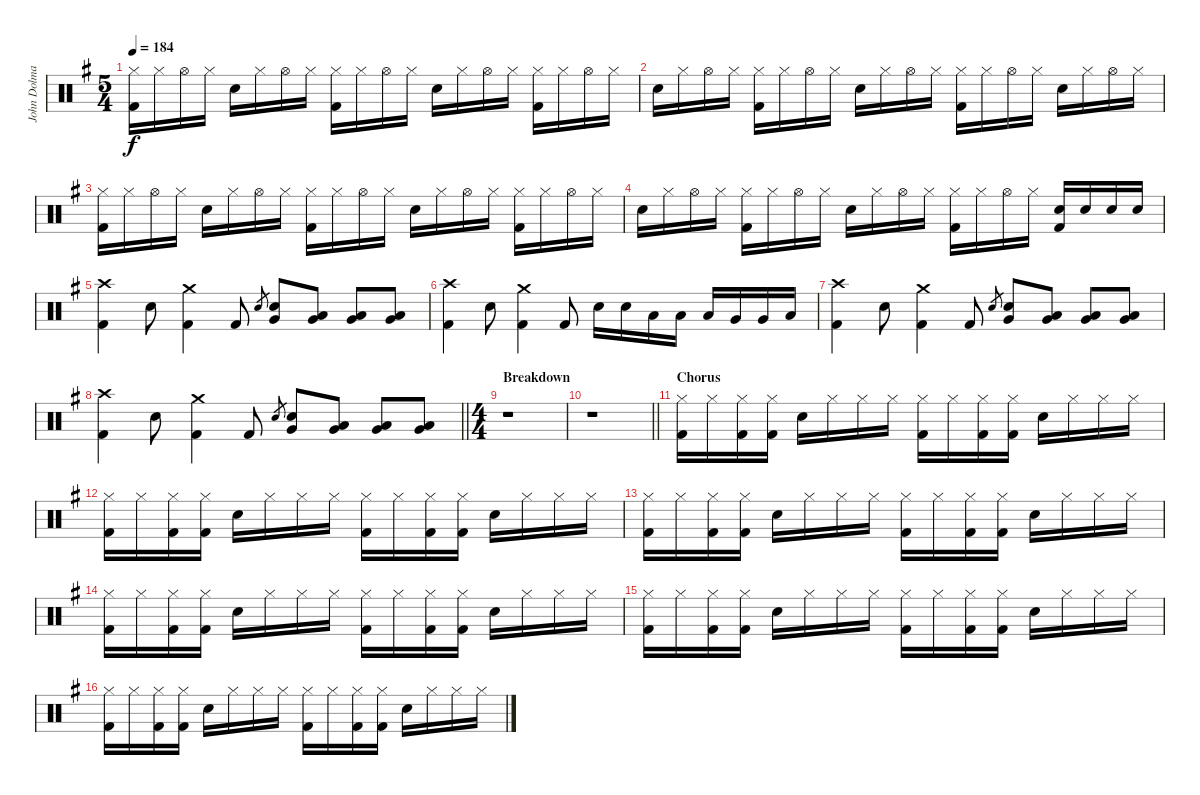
\track ("John Dolmayan [Drums]" "John Dolma") {instrument percussion}
\staff {score}
\articulation defaults
\ts (5 4)
\tempo 184
\clef neutral
\ks eminor
("Hi-Hat (closed)" "Kick (hit) 2").16{dy f} "Hi-Hat (closed)".16 "Hi-Hat (open)".16 "Hi-Hat (closed)".16 "Electric Snare (hit)".16 "Hi-Hat (closed)".16 "Hi-Hat (open)".16 "Hi-Hat (closed)".16 ("Hi-Hat (closed)" "Kick (hit) 2").16 "Hi-Hat (closed)".16 "Hi-Hat (open)".16 "Hi-Hat (closed)".16 "Electric Snare (hit)".16 "Hi-Hat (closed)".16 "Hi-Hat (open)".16 "Hi-Hat (closed)".16 ("Hi-Hat (closed)" "Kick (hit) 2").16 "Hi-Hat (closed)".16 "Hi-Hat (open)".16 "Hi-Hat (closed)".16 |
"Electric Snare (hit)".16 "Hi-Hat (closed)".16 "Hi-Hat (open)".16 "Hi-Hat (closed)".16 ("Hi-Hat (closed)" "Kick (hit) 2").16 "Hi-Hat (closed)".16 "Hi-Hat (open)".16 "Hi-Hat (closed)".16 "Electric Snare (hit)".16 "Hi-Hat (closed)".16 "Hi-Hat (open)".16 "Hi-Hat (closed)".16 ("Hi-Hat (closed)" "Kick (hit) 2").16 "Hi-Hat (closed)".16 "Hi-Hat (open)".16 "Hi-Hat (closed)".16 "Electric Snare (hit)".16 "Hi-Hat (closed)".16 "Hi-Hat (open)".16 "Hi-Hat (closed)".16 |
("Hi-Hat (closed)" "Kick (hit) 2").16 "Hi-Hat (closed)".16 "Hi-Hat (open)".16 "Hi-Hat (closed)".16 "Electric Snare (hit)".16 "Hi-Hat (closed)".16 "Hi-Hat (open)".16 "Hi-Hat (closed)".16 ("Hi-Hat (closed)" "Kick (hit) 2").16 "Hi-Hat (closed)".16 "Hi-Hat (open)".16 "Hi-Hat (closed)".16 "Electric Snare (hit)".16 "Hi-Hat (closed)".16 "Hi-Hat (open)".16 "Hi-Hat (closed)".16 ("Hi-Hat (closed)" "Kick (hit) 2").16 "Hi-Hat (closed)".16 "Hi-Hat (open)".16 "Hi-Hat (closed)".16 |
"Electric Snare (hit)".16 "Hi-Hat (closed)".16 "Hi-Hat (open)".16 "Hi-Hat (closed)".16 ("Hi-Hat (closed)" "Kick (hit) 2").16 "Hi-Hat (closed)".16 "Hi-Hat (open)".16 "Hi-Hat (closed)".16 "Electric Snare (hit)".16 "Hi-Hat (closed)".16 "Hi-Hat (open)".16 "Hi-Hat (closed)".16 ("Hi-Hat (closed)" "Kick (hit) 2").16 "Hi-Hat (closed)".16 "Hi-Hat (open)".16 "Hi-Hat (closed)".16 ("Electric Snare (hit)" "Kick (hit) 2").16 "Electric Snare (hit)".16 "Electric Snare (hit)".16 "Electric Snare (hit)".16 |
("Crash high (hit)" "Kick (hit) 2").4 "Electric Snare (hit)".8 ("Crash medium (hit)" "Kick (hit) 2").4 "Kick (hit) 2".8 "Electric Snare (hit)".8{gr} ("Very Low Tom (hit)" "Electric Snare (hit)").8 ("Low Tom (hit)" "Very Low Tom (hit)").8 ("Very Low Tom (hit)" "Low Floor Tom (hit)").8 ("Very Low Tom (hit)" "Low Floor Tom (hit)").8 |
("Crash high (hit)" "Kick (hit) 2").4 "Electric Snare (hit)".8 ("Crash medium (hit)" "Kick (hit) 2").4 "Kick (hit) 2".8 "Electric Snare (hit)".16 "Electric Snare (hit)".16 "Low Tom (hit)".16 "Low Tom (hit)".16 "Low Tom (hit)".16 "Very Low Tom (hit)".16 "Very Low Tom (hit)".16 "Low Floor Tom (hit)".16 |
("Crash high (hit)" "Kick (hit) 2").4 "Electric Snare (hit)".8 ("Crash medium (hit)" "Kick (hit) 2").4 "Kick (hit) 2".8 "Electric Snare (hit)".8{gr} ("Very Low Tom (hit)" "Electric Snare (hit)").8 ("Low Tom (hit)" "Very Low Tom (hit)").8 ("Very Low Tom (hit)" "Low Floor Tom (hit)").8 ("Very Low Tom (hit)" "Low Floor Tom (hit)").8 |
\barLineRight lightlight
("Crash high (hit)" "Kick (hit) 2").4 "Electric Snare (hit)".8 ("Crash medium (hit)" "Kick (hit) 2").4 "Kick (hit) 2".8 "Electric Snare (hit)".8{gr} ("Very Low Tom (hit)" "Electric Snare (hit)").8 ("Low Tom (hit)" "Very Low Tom (hit)").8 ("Very Low Tom (hit)" "Low Floor Tom (hit)").8 ("Very Low Tom (hit)" "Low Floor Tom (hit)").8 |
\ts (4 4)
\section ("" "Breakdown")
r.1 |
\barLineRight lightlight
r.1 |
\section ("" "Chorus")
("Hi-Hat (closed)" "Kick (hit) 2").16 "Hi-Hat (closed)".16 ("Hi-Hat (closed)" "Kick (hit) 2").16 ("Hi-Hat (closed)" "Kick (hit) 2").16 "Electric Snare (hit)".16 "Hi-Hat (closed)".16 "Hi-Hat (closed)".16 "Hi-Hat (closed)".16 ("Hi-Hat (closed)" "Kick (hit) 2").16 "Hi-Hat (closed)".16 ("Hi-Hat (closed)" "Kick (hit) 2").16 ("Hi-Hat (closed)" "Kick (hit) 2").16 "Electric Snare (hit)".16 "Hi-Hat (closed)".16 "Hi-Hat (closed)".16 "Hi-Hat (closed)".16 |
("Hi-Hat (closed)" "Kick (hit) 2").16 "Hi-Hat (closed)".16 ("Hi-Hat (closed)" "Kick (hit) 2").16 ("Hi-Hat (closed)" "Kick (hit) 2").16 "Electric Snare (hit)".16 "Hi-Hat (closed)".16 "Hi-Hat (closed)".16 "Hi-Hat (closed)".16 ("Hi-Hat (closed)" "Kick (hit) 2").16 "Hi-Hat (closed)".16 ("Hi-Hat (closed)" "Kick (hit) 2").16 ("Hi-Hat (closed)" "Kick (hit) 2").16 "Electric Snare (hit)".16 "Hi-Hat (closed)".16 "Hi-Hat (closed)".16 "Hi-Hat (closed)".16 |
("Hi-Hat (closed)" "Kick (hit) 2").16 "Hi-Hat (closed)".16 ("Hi-Hat (closed)" "Kick (hit) 2").16 ("Hi-Hat (closed)" "Kick (hit) 2").16 "Electric Snare (hit)".16 "Hi-Hat (closed)".16 "Hi-Hat (closed)".16 "Hi-Hat (closed)".16 ("Hi-Hat (closed)" "Kick (hit) 2").16 "Hi-Hat (closed)".16 ("Hi-Hat (closed)" "Kick (hit) 2").16 ("Hi-Hat (closed)" "Kick (hit) 2").16 "Electric Snare (hit)".16 "Hi-Hat (closed)".16 "Hi-Hat (closed)".16 "Hi-Hat (closed)".16 |
("Hi-Hat (closed)" "Kick (hit) 2").16 "Hi-Hat (closed)".16 ("Hi-Hat (closed)" "Kick (hit) 2").16 ("Hi-Hat (closed)" "Kick (hit) 2").16 "Electric Snare (hit)".16 "Hi-Hat (closed)".16 "Hi-Hat (closed)".16 "Hi-Hat (closed)".16 ("Hi-Hat (closed)" "Kick (hit) 2").16 "Hi-Hat (closed)".16 ("Hi-Hat (closed)" "Kick (hit) 2").16 ("Hi-Hat (closed)" "Kick (hit) 2").16 "Electric Snare (hit)".16 "Hi-Hat (closed)".16 "Hi-Hat (closed)".16 "Hi-Hat (closed)".16 |
("Hi-Hat (closed)" "Kick (hit) 2").16 "Hi-Hat (closed)".16 ("Hi-Hat (closed)" "Kick (hit) 2").16 ("Hi-Hat (closed)" "Kick (hit) 2").16 "Electric Snare (hit)".16 "Hi-Hat (closed)".16 "Hi-Hat (closed)".16 "Hi-Hat (closed)".16 ("Hi-Hat (closed)" "Kick (hit) 2").16 "Hi-Hat (closed)".16 ("Hi-Hat (closed)" "Kick (hit) 2").16 ("Hi-Hat (closed)" "Kick (hit) 2").16 "Electric Snare (hit)".16 "Hi-Hat (closed)".16 "Hi-Hat (closed)".16 "Hi-Hat (closed)".16 |
("Hi-Hat (closed)" "Kick (hit) 2").16 "Hi-Hat (closed)".16 ("Hi-Hat (closed)" "Kick (hit) 2").16 ("Hi-Hat (closed)" "Kick (hit) 2").16 "Electric Snare (hit)".16 "Hi-Hat (closed)".16 "Hi-Hat (closed)".16 "Hi-Hat (closed)".16 ("Hi-Hat (closed)" "Kick (hit) 2").16 "Hi-Hat (closed)".16 ("Hi-Hat (closed)" "Kick (hit) 2").16 ("Hi-Hat (closed)" "Kick (hit) 2").16 "Electric Snare (hit)".16 "Hi-Hat (closed)".16 "Hi-Hat (closed)".16 "Hi-Hat (closed)".16
